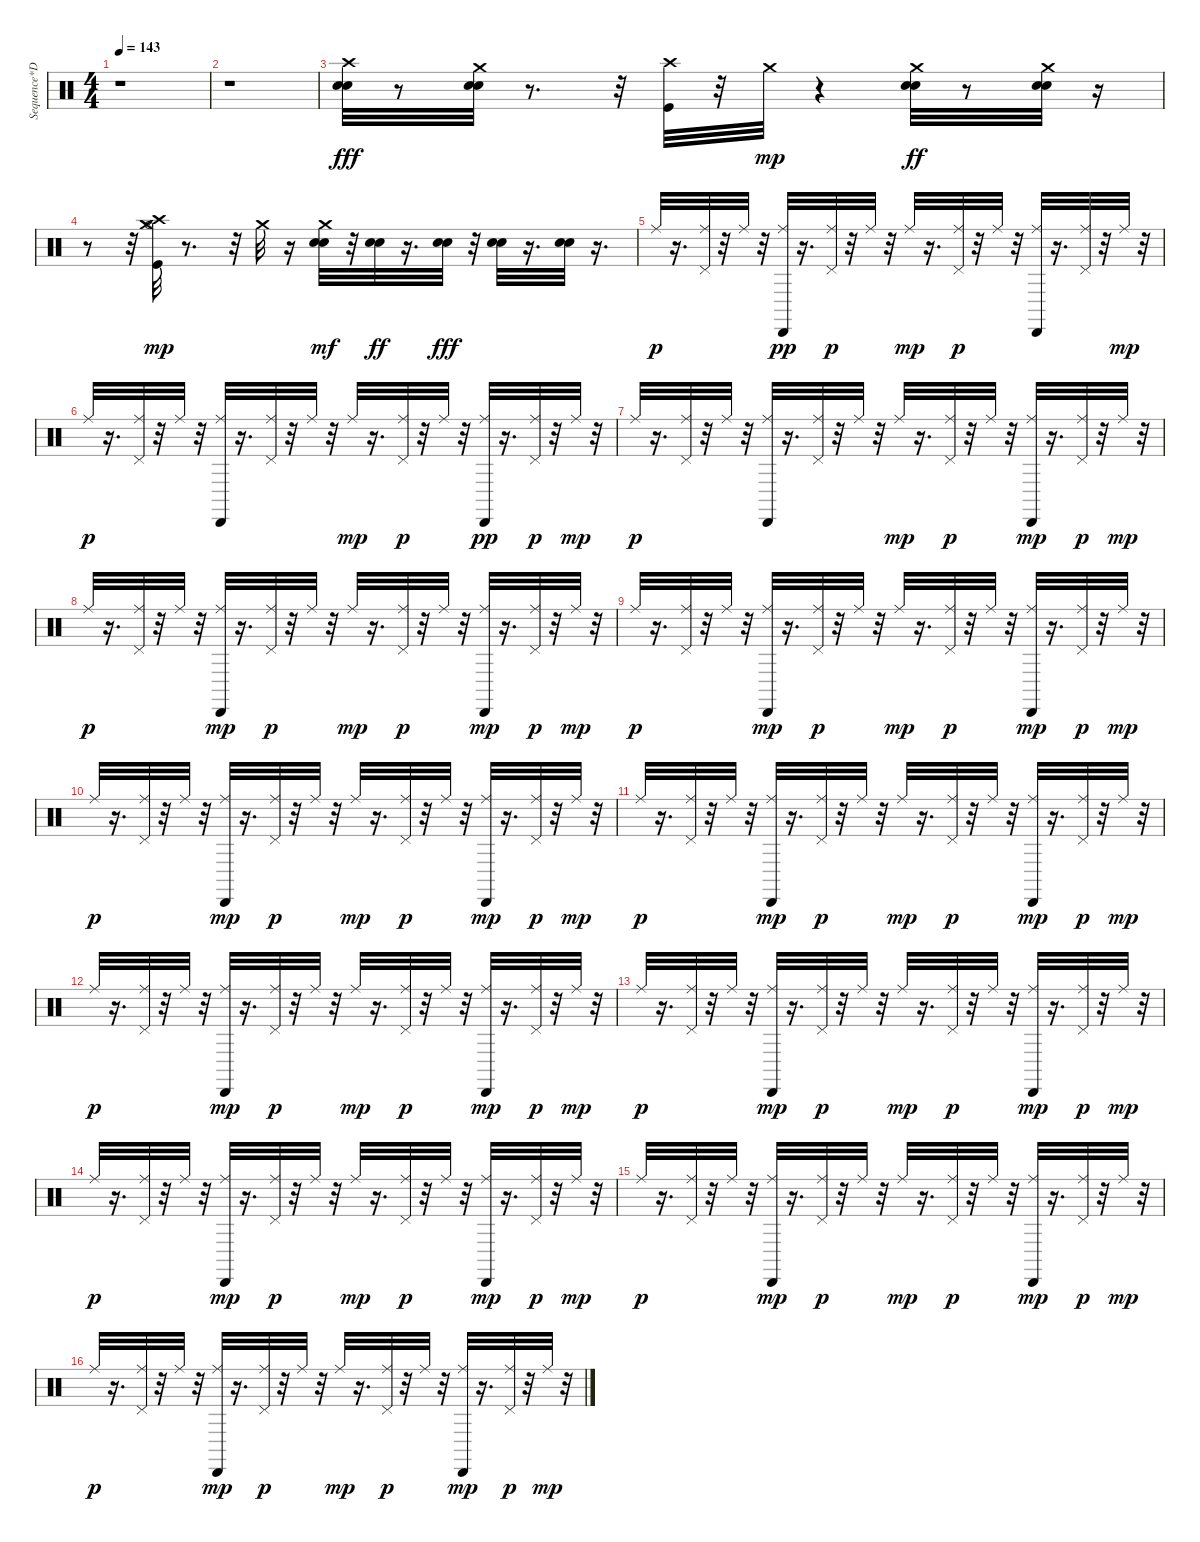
\track ("Sequence*Demixed 10" "Sequence*D") {instrument percussion}
\staff {score}
\articulation defaults
\ts (4 4)
\tempo 143
\clef neutral
\ks c
r.1{dy fff} |
r.1 |
("Metronome (bell)" "Electric Snare (hit)" "Crash high (hit)").32 r.8 ("Metronome (bell)" "Crash medium (hit)" "Electric Snare (hit)").32 r.8{d} r.32 ("Crash high (hit)" "Kick (hit)").32 r.32 "Crash medium (hit)".32{dy mp} r.4 ("Metronome (bell)" "Crash medium (hit)" "Electric Snare (hit)").32{dy ff} r.8 ("Metronome (bell)" "Crash medium (hit)" "Electric Snare (hit)").32 r.16 |
r.8 r.32 ("Crash high (hit)" "Kick (hit)" "Hi-Hat (open)" "Crash medium (hit)").32{dy mp} r.8{d} r.32 "Crash medium (hit)".32 r.16 ("Metronome (bell)" "Electric Snare (hit)" "Crash medium (hit)").32{dy mf} r.32 ("Metronome (bell)" "Electric Snare (hit)").32{dy ff} r.16{d} ("Metronome (bell)" "Electric Snare (hit)").32{dy fff} r.32 ("Metronome (bell)" "Electric Snare (hit)").32 r.16{d} ("Metronome (bell)" "Electric Snare (hit)").32 r.16{d} |
"Ride (middle)".32{dy p} r.16{d} ("Pedal Hi-Hat (hit)" "Ride (middle)").32 r.32 "Ride (middle)".32 r.32 ("Ride (middle)" "Cabasa (hit)").32{dy pp} r.16{d} ("Pedal Hi-Hat (hit)" "Ride (middle)").32{dy p} r.32 "Ride (middle)".32 r.32 "Ride (middle)".32{dy mp} r.16{d} ("Pedal Hi-Hat (hit)" "Ride (middle)").32{dy p} r.32 "Ride (middle)".32 r.32 ("Ride (middle)" "Cabasa (hit)").32 r.16{d} ("Pedal Hi-Hat (hit)" "Ride (middle)").32 r.32 "Ride (middle)".32{dy mp} r.32 |
"Ride (middle)".32{dy p} r.16{d} ("Pedal Hi-Hat (hit)" "Ride (middle)").32 r.32 "Ride (middle)".32 r.32 ("Ride (middle)" "Cabasa (hit)").32 r.16{d} ("Pedal Hi-Hat (hit)" "Ride (middle)").32 r.32 "Ride (middle)".32 r.32 "Ride (middle)".32{dy mp} r.16{d} ("Pedal Hi-Hat (hit)" "Ride (middle)").32{dy p} r.32 "Ride (middle)".32 r.32 ("Ride (middle)" "Cabasa (hit)").32{dy pp} r.16{d} ("Pedal Hi-Hat (hit)" "Ride (middle)").32{dy p} r.32 "Ride (middle)".32{dy mp} r.32 |
"Ride (middle)".32{dy p} r.16{d} ("Pedal Hi-Hat (hit)" "Ride (middle)").32 r.32 "Ride (middle)".32 r.32 ("Ride (middle)" "Cabasa (hit)").32 r.16{d} ("Pedal Hi-Hat (hit)" "Ride (middle)").32 r.32 "Ride (middle)".32 r.32 "Ride (middle)".32{dy mp} r.16{d} ("Pedal Hi-Hat (hit)" "Ride (middle)").32{dy p} r.32 "Ride (middle)".32 r.32 ("Ride (middle)" "Cabasa (hit)").32{dy mp} r.16{d} ("Pedal Hi-Hat (hit)" "Ride (middle)").32{dy p} r.32 "Ride (middle)".32{dy mp} r.32 |
"Ride (middle)".32{dy p} r.16{d} ("Pedal Hi-Hat (hit)" "Ride (middle)").32 r.32 "Ride (middle)".32 r.32 ("Ride (middle)" "Cabasa (hit)").32{dy mp} r.16{d} ("Pedal Hi-Hat (hit)" "Ride (middle)").32{dy p} r.32 "Ride (middle)".32 r.32 "Ride (middle)".32{dy mp} r.16{d} ("Pedal Hi-Hat (hit)" "Ride (middle)").32{dy p} r.32 "Ride (middle)".32 r.32 ("Ride (middle)" "Cabasa (hit)").32{dy mp} r.16{d} ("Pedal Hi-Hat (hit)" "Ride (middle)").32{dy p} r.32 "Ride (middle)".32{dy mp} r.32 |
"Ride (middle)".32{dy p} r.16{d} ("Pedal Hi-Hat (hit)" "Ride (middle)").32 r.32 "Ride (middle)".32 r.32 ("Ride (middle)" "Cabasa (hit)").32{dy mp} r.16{d} ("Pedal Hi-Hat (hit)" "Ride (middle)").32{dy p} r.32 "Ride (middle)".32 r.32 "Ride (middle)".32{dy mp} r.16{d} ("Pedal Hi-Hat (hit)" "Ride (middle)").32{dy p} r.32 "Ride (middle)".32 r.32 ("Ride (middle)" "Cabasa (hit)").32{dy mp} r.16{d} ("Pedal Hi-Hat (hit)" "Ride (middle)").32{dy p} r.32 "Ride (middle)".32{dy mp} r.32 |
"Ride (middle)".32{dy p} r.16{d} ("Pedal Hi-Hat (hit)" "Ride (middle)").32 r.32 "Ride (middle)".32 r.32 ("Ride (middle)" "Cabasa (hit)").32{dy mp} r.16{d} ("Pedal Hi-Hat (hit)" "Ride (middle)").32{dy p} r.32 "Ride (middle)".32 r.32 "Ride (middle)".32{dy mp} r.16{d} ("Pedal Hi-Hat (hit)" "Ride (middle)").32{dy p} r.32 "Ride (middle)".32 r.32 ("Ride (middle)" "Cabasa (hit)").32{dy mp} r.16{d} ("Pedal Hi-Hat (hit)" "Ride (middle)").32{dy p} r.32 "Ride (middle)".32{dy mp} r.32 |
"Ride (middle)".32{dy p} r.16{d} ("Pedal Hi-Hat (hit)" "Ride (middle)").32 r.32 "Ride (middle)".32 r.32 ("Ride (middle)" "Cabasa (hit)").32{dy mp} r.16{d} ("Pedal Hi-Hat (hit)" "Ride (middle)").32{dy p} r.32 "Ride (middle)".32 r.32 "Ride (middle)".32{dy mp} r.16{d} ("Pedal Hi-Hat (hit)" "Ride (middle)").32{dy p} r.32 "Ride (middle)".32 r.32 ("Ride (middle)" "Cabasa (hit)").32{dy mp} r.16{d} ("Pedal Hi-Hat (hit)" "Ride (middle)").32{dy p} r.32 "Ride (middle)".32{dy mp} r.32 |
"Ride (middle)".32{dy p} r.16{d} ("Pedal Hi-Hat (hit)" "Ride (middle)").32 r.32 "Ride (middle)".32 r.32 ("Ride (middle)" "Cabasa (hit)").32{dy mp} r.16{d} ("Pedal Hi-Hat (hit)" "Ride (middle)").32{dy p} r.32 "Ride (middle)".32 r.32 "Ride (middle)".32{dy mp} r.16{d} ("Pedal Hi-Hat (hit)" "Ride (middle)").32{dy p} r.32 "Ride (middle)".32 r.32 ("Ride (middle)" "Cabasa (hit)").32{dy mp} r.16{d} ("Pedal Hi-Hat (hit)" "Ride (middle)").32{dy p} r.32 "Ride (middle)".32{dy mp} r.32 |
"Ride (middle)".32{dy p} r.16{d} ("Pedal Hi-Hat (hit)" "Ride (middle)").32 r.32 "Ride (middle)".32 r.32 ("Ride (middle)" "Cabasa (hit)").32{dy mp} r.16{d} ("Pedal Hi-Hat (hit)" "Ride (middle)").32{dy p} r.32 "Ride (middle)".32 r.32 "Ride (middle)".32{dy mp} r.16{d} ("Pedal Hi-Hat (hit)" "Ride (middle)").32{dy p} r.32 "Ride (middle)".32 r.32 ("Ride (middle)" "Cabasa (hit)").32{dy mp} r.16{d} ("Pedal Hi-Hat (hit)" "Ride (middle)").32{dy p} r.32 "Ride (middle)".32{dy mp} r.32 |
"Ride (middle)".32{dy p} r.16{d} ("Pedal Hi-Hat (hit)" "Ride (middle)").32 r.32 "Ride (middle)".32 r.32 ("Ride (middle)" "Cabasa (hit)").32{dy mp} r.16{d} ("Pedal Hi-Hat (hit)" "Ride (middle)").32{dy p} r.32 "Ride (middle)".32 r.32 "Ride (middle)".32{dy mp} r.16{d} ("Pedal Hi-Hat (hit)" "Ride (middle)").32{dy p} r.32 "Ride (middle)".32 r.32 ("Ride (middle)" "Cabasa (hit)").32{dy mp} r.16{d} ("Pedal Hi-Hat (hit)" "Ride (middle)").32{dy p} r.32 "Ride (middle)".32{dy mp} r.32 |
"Ride (middle)".32{dy p} r.16{d} ("Pedal Hi-Hat (hit)" "Ride (middle)").32 r.32 "Ride (middle)".32 r.32 ("Ride (middle)" "Cabasa (hit)").32{dy mp} r.16{d} ("Pedal Hi-Hat (hit)" "Ride (middle)").32{dy p} r.32 "Ride (middle)".32 r.32 "Ride (middle)".32{dy mp} r.16{d} ("Pedal Hi-Hat (hit)" "Ride (middle)").32{dy p} r.32 "Ride (middle)".32 r.32 ("Ride (middle)" "Cabasa (hit)").32{dy mp} r.16{d} ("Pedal Hi-Hat (hit)" "Ride (middle)").32{dy p} r.32 "Ride (middle)".32{dy mp} r.32 |
"Ride (middle)".32{dy p} r.16{d} ("Pedal Hi-Hat (hit)" "Ride (middle)").32 r.32 "Ride (middle)".32 r.32 ("Ride (middle)" "Cabasa (hit)").32{dy mp} r.16{d} ("Pedal Hi-Hat (hit)" "Ride (middle)").32{dy p} r.32 "Ride (middle)".32 r.32 "Ride (middle)".32{dy mp} r.16{d} ("Pedal Hi-Hat (hit)" "Ride (middle)").32{dy p} r.32 "Ride (middle)".32 r.32 ("Ride (middle)" "Cabasa (hit)").32{dy mp} r.16{d} ("Pedal Hi-Hat (hit)" "Ride (middle)").32{dy p} r.32 "Ride (middle)".32{dy mp} r.32
